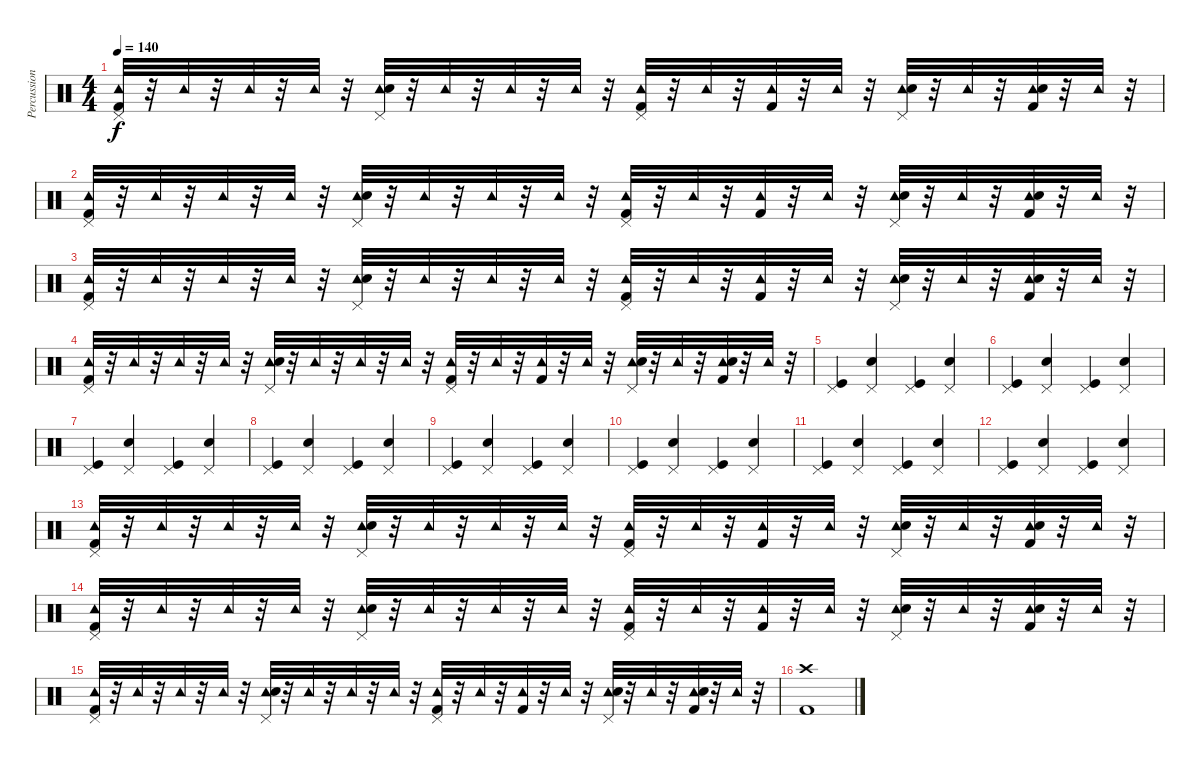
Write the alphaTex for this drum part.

\track ("Percussion" "Percussion") {instrument percussion}
\staff {score}
\articulation defaults
\ts (4 4)
\tempo 140
\clef neutral
\ks c
("Pedal Hi-Hat (hit)" "Tambourine (hit)" "Kick (hit) 2").32{dy f} r.32 "Tambourine (hit)".32 r.32 "Tambourine (hit)".32 r.32 "Tambourine (hit)".32 r.32 ("Pedal Hi-Hat (hit)" "Tambourine (hit)" "Snare (hit) 2").32 r.32 "Tambourine (hit)".32 r.32 "Tambourine (hit)".32 r.32 "Tambourine (hit)".32 r.32 ("Pedal Hi-Hat (hit)" "Tambourine (hit)" "Kick (hit) 2").32 r.32 "Tambourine (hit)".32 r.32 ("Tambourine (hit)" "Kick (hit) 2").32 r.32 "Tambourine (hit)".32 r.32 ("Pedal Hi-Hat (hit)" "Tambourine (hit)" "Snare (hit) 2").32 r.32 "Tambourine (hit)".32 r.32 ("Tambourine (hit)" "Snare (hit) 2" "Kick (hit) 2").32 r.32 "Tambourine (hit)".32 r.32 |
("Pedal Hi-Hat (hit)" "Tambourine (hit)" "Kick (hit) 2").32 r.32 "Tambourine (hit)".32 r.32 "Tambourine (hit)".32 r.32 "Tambourine (hit)".32 r.32 ("Pedal Hi-Hat (hit)" "Tambourine (hit)" "Snare (hit) 2").32 r.32 "Tambourine (hit)".32 r.32 "Tambourine (hit)".32 r.32 "Tambourine (hit)".32 r.32 ("Pedal Hi-Hat (hit)" "Tambourine (hit)" "Kick (hit) 2").32 r.32 "Tambourine (hit)".32 r.32 ("Tambourine (hit)" "Kick (hit) 2").32 r.32 "Tambourine (hit)".32 r.32 ("Pedal Hi-Hat (hit)" "Tambourine (hit)" "Snare (hit) 2").32 r.32 "Tambourine (hit)".32 r.32 ("Tambourine (hit)" "Snare (hit) 2" "Kick (hit) 2").32 r.32 "Tambourine (hit)".32 r.32 |
("Pedal Hi-Hat (hit)" "Tambourine (hit)" "Kick (hit) 2").32 r.32 "Tambourine (hit)".32 r.32 "Tambourine (hit)".32 r.32 "Tambourine (hit)".32 r.32 ("Pedal Hi-Hat (hit)" "Tambourine (hit)" "Snare (hit) 2").32 r.32 "Tambourine (hit)".32 r.32 "Tambourine (hit)".32 r.32 "Tambourine (hit)".32 r.32 ("Pedal Hi-Hat (hit)" "Tambourine (hit)" "Kick (hit) 2").32 r.32 "Tambourine (hit)".32 r.32 ("Tambourine (hit)" "Kick (hit) 2").32 r.32 "Tambourine (hit)".32 r.32 ("Pedal Hi-Hat (hit)" "Tambourine (hit)" "Snare (hit) 2").32 r.32 "Tambourine (hit)".32 r.32 ("Tambourine (hit)" "Snare (hit) 2" "Kick (hit) 2").32 r.32 "Tambourine (hit)".32 r.32 |
("Pedal Hi-Hat (hit)" "Tambourine (hit)" "Kick (hit) 2").32 r.32 "Tambourine (hit)".32 r.32 "Tambourine (hit)".32 r.32 "Tambourine (hit)".32 r.32 ("Pedal Hi-Hat (hit)" "Tambourine (hit)" "Snare (hit) 2").32 r.32 "Tambourine (hit)".32 r.32 "Tambourine (hit)".32 r.32 "Tambourine (hit)".32 r.32 ("Pedal Hi-Hat (hit)" "Tambourine (hit)" "Kick (hit) 2").32 r.32 "Tambourine (hit)".32 r.32 ("Tambourine (hit)" "Kick (hit) 2").32 r.32 "Tambourine (hit)".32 r.32 ("Pedal Hi-Hat (hit)" "Tambourine (hit)" "Snare (hit) 2").32 r.32 "Tambourine (hit)".32 r.32 ("Tambourine (hit)" "Snare (hit) 2" "Kick (hit) 2").32 r.32 "Tambourine (hit)".32 r.32 |
("Pedal Hi-Hat (hit)" "Kick (hit)").4 ("Pedal Hi-Hat (hit)" "Snare (hit) 2").4 ("Pedal Hi-Hat (hit)" "Kick (hit)").4 ("Pedal Hi-Hat (hit)" "Snare (hit) 2").4 |
("Pedal Hi-Hat (hit)" "Kick (hit)").4 ("Pedal Hi-Hat (hit)" "Snare (hit) 2").4 ("Pedal Hi-Hat (hit)" "Kick (hit)").4 ("Pedal Hi-Hat (hit)" "Snare (hit) 2").4 |
("Pedal Hi-Hat (hit)" "Kick (hit)").4 ("Pedal Hi-Hat (hit)" "Snare (hit) 2").4 ("Pedal Hi-Hat (hit)" "Kick (hit)").4 ("Pedal Hi-Hat (hit)" "Snare (hit) 2").4 |
("Pedal Hi-Hat (hit)" "Kick (hit)").4 ("Pedal Hi-Hat (hit)" "Snare (hit) 2").4 ("Pedal Hi-Hat (hit)" "Kick (hit)").4 ("Pedal Hi-Hat (hit)" "Snare (hit) 2").4 |
("Pedal Hi-Hat (hit)" "Kick (hit)").4 ("Pedal Hi-Hat (hit)" "Snare (hit) 2").4 ("Pedal Hi-Hat (hit)" "Kick (hit)").4 ("Pedal Hi-Hat (hit)" "Snare (hit) 2").4 |
("Pedal Hi-Hat (hit)" "Kick (hit)").4 ("Pedal Hi-Hat (hit)" "Snare (hit) 2").4 ("Pedal Hi-Hat (hit)" "Kick (hit)").4 ("Pedal Hi-Hat (hit)" "Snare (hit) 2").4 |
("Pedal Hi-Hat (hit)" "Kick (hit)").4 ("Pedal Hi-Hat (hit)" "Snare (hit) 2").4 ("Pedal Hi-Hat (hit)" "Kick (hit)").4 ("Pedal Hi-Hat (hit)" "Snare (hit) 2").4 |
("Pedal Hi-Hat (hit)" "Kick (hit)").4 ("Pedal Hi-Hat (hit)" "Snare (hit) 2").4 ("Pedal Hi-Hat (hit)" "Kick (hit)").4 ("Pedal Hi-Hat (hit)" "Snare (hit) 2").4 |
("Pedal Hi-Hat (hit)" "Tambourine (hit)" "Kick (hit) 2").32 r.32 "Tambourine (hit)".32 r.32 "Tambourine (hit)".32 r.32 "Tambourine (hit)".32 r.32 ("Pedal Hi-Hat (hit)" "Tambourine (hit)" "Snare (hit) 2").32 r.32 "Tambourine (hit)".32 r.32 "Tambourine (hit)".32 r.32 "Tambourine (hit)".32 r.32 ("Pedal Hi-Hat (hit)" "Tambourine (hit)" "Kick (hit) 2").32 r.32 "Tambourine (hit)".32 r.32 ("Tambourine (hit)" "Kick (hit) 2").32 r.32 "Tambourine (hit)".32 r.32 ("Pedal Hi-Hat (hit)" "Tambourine (hit)" "Snare (hit) 2").32 r.32 "Tambourine (hit)".32 r.32 ("Tambourine (hit)" "Snare (hit) 2" "Kick (hit) 2").32 r.32 "Tambourine (hit)".32 r.32 |
("Pedal Hi-Hat (hit)" "Tambourine (hit)" "Kick (hit) 2").32 r.32 "Tambourine (hit)".32 r.32 "Tambourine (hit)".32 r.32 "Tambourine (hit)".32 r.32 ("Pedal Hi-Hat (hit)" "Tambourine (hit)" "Snare (hit) 2").32 r.32 "Tambourine (hit)".32 r.32 "Tambourine (hit)".32 r.32 "Tambourine (hit)".32 r.32 ("Pedal Hi-Hat (hit)" "Tambourine (hit)" "Kick (hit) 2").32 r.32 "Tambourine (hit)".32 r.32 ("Tambourine (hit)" "Kick (hit) 2").32 r.32 "Tambourine (hit)".32 r.32 ("Pedal Hi-Hat (hit)" "Tambourine (hit)" "Snare (hit) 2").32 r.32 "Tambourine (hit)".32 r.32 ("Tambourine (hit)" "Snare (hit) 2" "Kick (hit) 2").32 r.32 "Tambourine (hit)".32 r.32 |
("Pedal Hi-Hat (hit)" "Tambourine (hit)" "Kick (hit) 2").32 r.32 "Tambourine (hit)".32 r.32 "Tambourine (hit)".32 r.32 "Tambourine (hit)".32 r.32 ("Pedal Hi-Hat (hit)" "Tambourine (hit)" "Snare (hit) 2").32 r.32 "Tambourine (hit)".32 r.32 "Tambourine (hit)".32 r.32 "Tambourine (hit)".32 r.32 ("Pedal Hi-Hat (hit)" "Tambourine (hit)" "Kick (hit) 2").32 r.32 "Tambourine (hit)".32 r.32 ("Tambourine (hit)" "Kick (hit) 2").32 r.32 "Tambourine (hit)".32 r.32 ("Pedal Hi-Hat (hit)" "Tambourine (hit)" "Snare (hit) 2").32 r.32 "Tambourine (hit)".32 r.32 ("Tambourine (hit)" "Snare (hit) 2" "Kick (hit) 2").32 r.32 "Tambourine (hit)".32 r.32 |
("Crash high (hit)" "Kick (hit) 2").1
